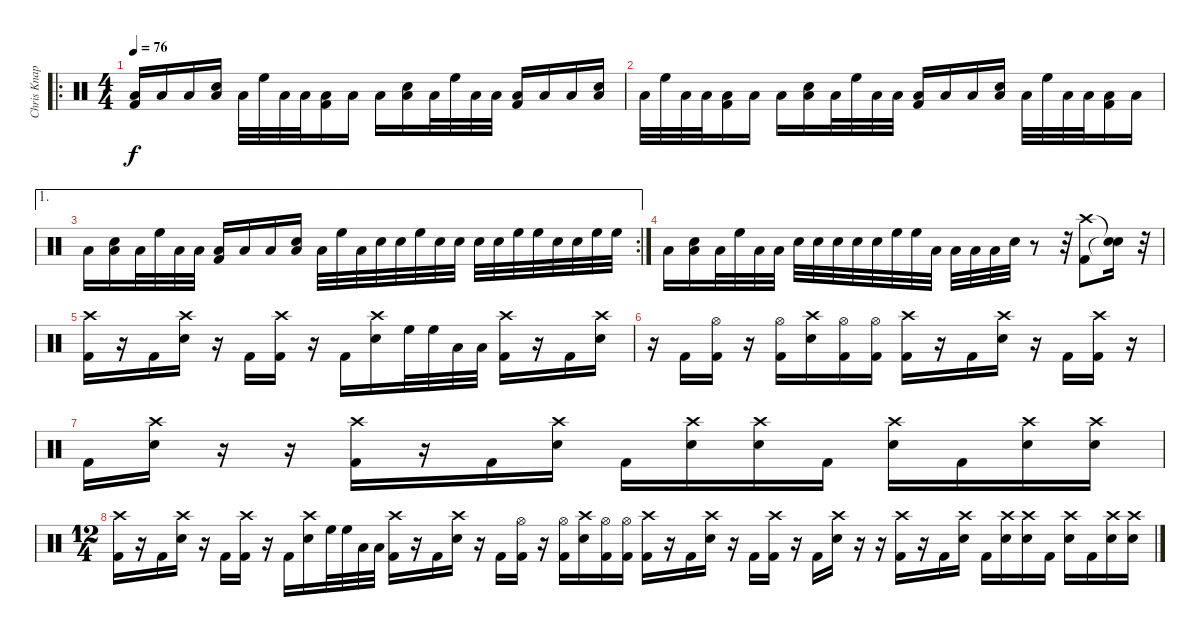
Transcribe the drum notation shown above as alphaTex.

\track ("Chris Knapp" "Chris Knap") {instrument percussion}
\staff {score}
\articulation defaults
\ro
\ts (4 4)
\tempo 76
\clef neutral
\ks c
("Low Floor Tom (hit)" "Kick (hit) 2").16{dy f} "Low Floor Tom (hit)".16 "Low Floor Tom (hit)".16 ("Snare (hit) 2" "Low Floor Tom (hit)").16 "Low Floor Tom (hit)".32 "High Floor Tom (hit)".32 "Low Floor Tom (hit)".32 "Low Tom (hit)".32 ("Low Floor Tom (hit)" "Kick (hit) 2").16 "Low Floor Tom (hit)".16 "Low Floor Tom (hit)".16 ("Snare (hit) 2" "Low Floor Tom (hit)").16 "Low Floor Tom (hit)".32 "High Floor Tom (hit)".32 "Low Floor Tom (hit)".32 "Low Tom (hit)".32 ("Low Floor Tom (hit)" "Kick (hit) 2").16 "Low Floor Tom (hit)".16 "Low Floor Tom (hit)".16 ("Snare (hit) 2" "Low Floor Tom (hit)").16 |
"Low Floor Tom (hit)".32 "High Floor Tom (hit)".32 "Low Floor Tom (hit)".32 "Low Tom (hit)".32 ("Low Floor Tom (hit)" "Kick (hit) 2").16 "Low Floor Tom (hit)".16 "Low Floor Tom (hit)".16 ("Snare (hit) 2" "Low Floor Tom (hit)").16 "Low Floor Tom (hit)".32 "High Floor Tom (hit)".32 "Low Floor Tom (hit)".32 "Low Tom (hit)".32 ("Low Floor Tom (hit)" "Kick (hit) 2").16 "Low Floor Tom (hit)".16 "Low Floor Tom (hit)".16 ("Snare (hit) 2" "Low Floor Tom (hit)").16 "Low Floor Tom (hit)".32 "High Floor Tom (hit)".32 "Low Floor Tom (hit)".32 "Low Tom (hit)".32 ("Low Floor Tom (hit)" "Kick (hit) 2").16 "Low Floor Tom (hit)".16 |
\ae 1
\rc 2 "Low Floor Tom (hit)".16
("Snare (hit) 2" "Low Floor Tom (hit)").16 "Low Floor Tom (hit)".32 "High Floor Tom (hit)".32 "Low Floor Tom (hit)".32 "Low Tom (hit)".32 ("Low Floor Tom (hit)" "Kick (hit) 2").16 "Low Floor Tom (hit)".16 "Low Floor Tom (hit)".16 ("Snare (hit) 2" "Low Floor Tom (hit)").16 "Low Floor Tom (hit)".32 "High Floor Tom (hit)".32 "Low Floor Tom (hit)".32 "Snare (hit) 2".32 "Snare (hit) 2".32 "High Floor Tom (hit)".32 "Snare (hit) 2".32 "Snare (hit) 2".32 "Snare (hit) 2".32 "Snare (hit) 2".32 "High Floor Tom (hit)".32 "High Floor Tom (hit)".32 "Snare (hit) 2".32 "Snare (hit) 2".32 "High Floor Tom (hit)".32 "High Floor Tom (hit)".32 |
"Low Floor Tom (hit)".16 ("Snare (hit) 2" "Low Floor Tom (hit)").16 "Low Floor Tom (hit)".32 "High Floor Tom (hit)".32 "Low Floor Tom (hit)".32 "Low Tom (hit)".32 "Snare (hit) 2".32 "Snare (hit) 2".32 "Snare (hit) 2".32 "Snare (hit) 2".32 "Snare (hit) 2".32 "High Floor Tom (hit)".32 "High Floor Tom (hit)".32 "Low Tom (hit)".32 "Low Tom (hit)".32 "Low Tom (hit)".32 "Low Tom (hit)".32 "Snare (hit) 2".32 r.8 r.32 ("Crash high (hit)" "Kick (hit) 2").8 ("Snare (hit)"{t} "Snare (hit)"{t}).16 r.32 |
("Crash high (hit)" "Kick (hit) 2").16 r.16 "Kick (hit) 2".16 ("Crash high (hit)" "Snare (hit) 2").16 r.16 "Kick (hit) 2".16 ("Crash high (hit)" "Kick (hit) 2").16 r.16 "Kick (hit) 2".16 ("Crash high (hit)" "Snare (hit) 2").16 "High Floor Tom (hit)".32 "High Floor Tom (hit)".32 "Low Tom (hit)".32 "Low Tom (hit)".32 ("Crash high (hit)" "Kick (hit) 2").16 r.16 "Kick (hit) 2".16 ("Crash high (hit)" "Snare (hit) 2").16 |
r.16 "Kick (hit) 2".16 ("Hi-Hat (open)" "Kick (hit) 2").16 r.16 ("Hi-Hat (open)" "Kick (hit) 2").16 ("Crash high (hit)" "Snare (hit) 2").16 ("Hi-Hat (open)" "Kick (hit) 2").16 ("Hi-Hat (open)" "Kick (hit) 2").16 ("Crash high (hit)" "Kick (hit) 2").16 r.16 "Kick (hit) 2".16 ("Crash high (hit)" "Snare (hit) 2").16 r.16 "Kick (hit) 2".16 ("Crash high (hit)" "Kick (hit) 2").16 r.16 |
"Kick (hit) 2".16 ("Crash high (hit)" "Snare (hit) 2").16 r.16 r.16 ("Crash high (hit)" "Kick (hit) 2").16 r.16 "Kick (hit) 2".16 ("Crash high (hit)" "Snare (hit) 2").16 "Kick (hit) 2".16 ("Crash high (hit)" "Snare (hit) 2").16 ("Crash high (hit)" "Snare (hit) 2").16 "Kick (hit) 2".16 ("Crash high (hit)" "Snare (hit) 2").16 "Kick (hit) 2".16 ("Crash high (hit)" "Snare (hit) 2").16 ("Crash high (hit)" "Snare (hit) 2").16 |
\ts (12 4)
("Crash high (hit)" "Kick (hit) 2").16 r.16 "Kick (hit) 2".16 ("Crash high (hit)" "Snare (hit) 2").16 r.16 "Kick (hit) 2".16 ("Crash high (hit)" "Kick (hit) 2").16 r.16 "Kick (hit) 2".16 ("Crash high (hit)" "Snare (hit) 2").16 "High Floor Tom (hit)".32 "High Floor Tom (hit)".32 "Low Tom (hit)".32 "Low Tom (hit)".32 ("Crash high (hit)" "Kick (hit) 2").16 r.16 "Kick (hit) 2".16 ("Crash high (hit)" "Snare (hit) 2").16 r.16 "Kick (hit) 2".16 ("Hi-Hat (open)" "Kick (hit) 2").16 r.16 ("Hi-Hat (open)" "Kick (hit) 2").16 ("Crash high (hit)" "Snare (hit) 2").16 ("Hi-Hat (open)" "Kick (hit) 2").16 ("Hi-Hat (open)" "Kick (hit) 2").16 ("Crash high (hit)" "Kick (hit) 2").16 r.16 "Kick (hit) 2".16 ("Crash high (hit)" "Snare (hit) 2").16 r.16 "Kick (hit) 2".16 ("Crash high (hit)" "Kick (hit) 2").16 r.16 "Kick (hit) 2".16 ("Crash high (hit)" "Snare (hit) 2").16 r.16 r.16 ("Crash high (hit)" "Kick (hit) 2").16 r.16 "Kick (hit) 2".16 ("Crash high (hit)" "Snare (hit) 2").16 "Kick (hit) 2".16 ("Crash high (hit)" "Snare (hit) 2").16 ("Crash high (hit)" "Snare (hit) 2").16 "Kick (hit) 2".16 ("Crash high (hit)" "Snare (hit) 2").16 "Kick (hit) 2".16 ("Crash high (hit)" "Snare (hit) 2").16 ("Crash high (hit)" "Snare (hit) 2").16
